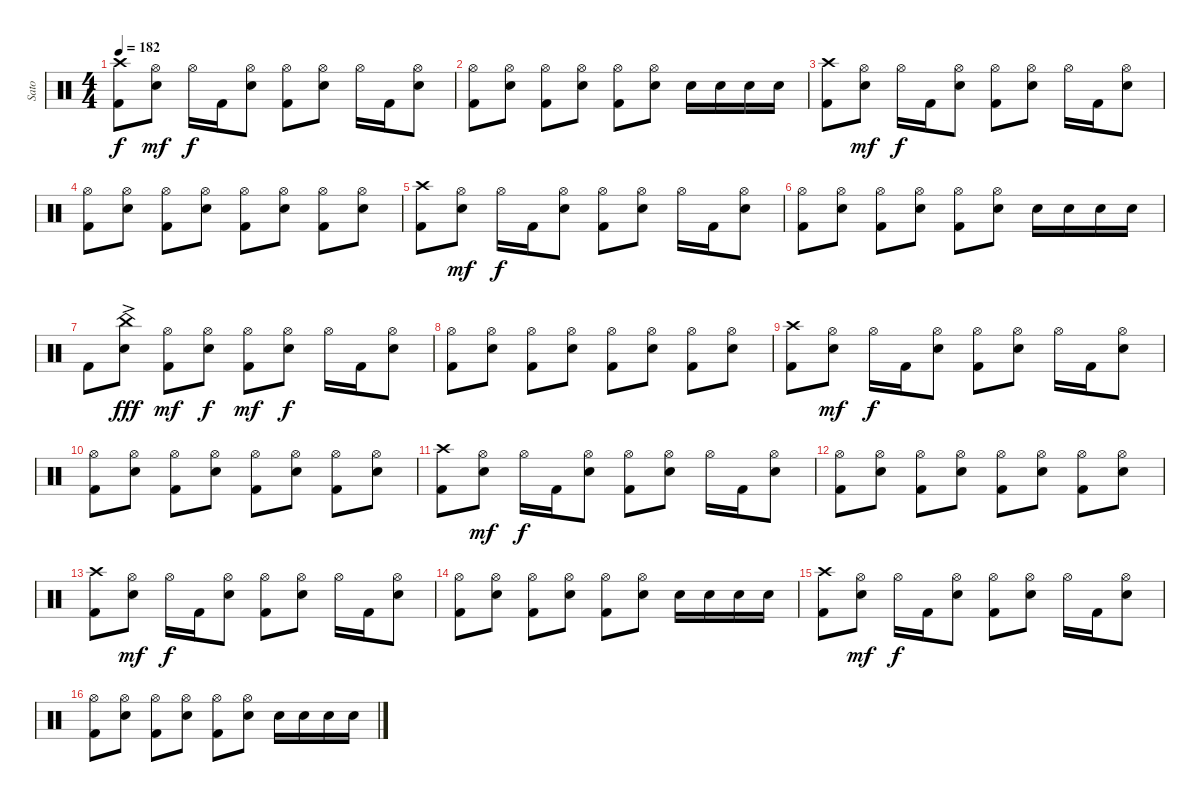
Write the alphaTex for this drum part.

\track ("Sato" "Sato") {instrument percussion}
\staff {score}
\articulation defaults
\ts (4 4)
\tempo 182
\clef neutral
\ks c
("Crash high (hit)" "Kick (hit) 2").8{dy f} ("Hi-Hat (open)" "Electric Snare (hit)").8{dy mf} "Hi-Hat (open)".16{dy f} "Kick (hit) 2".16 ("Hi-Hat (open)" "Electric Snare (hit)").8 ("Hi-Hat (open)" "Kick (hit) 2").8 ("Hi-Hat (open)" "Electric Snare (hit)").8 "Hi-Hat (open)".16 "Kick (hit) 2".16 ("Hi-Hat (open)" "Electric Snare (hit)").8 |
("Hi-Hat (open)" "Kick (hit) 2").8 ("Hi-Hat (open)" "Electric Snare (hit)").8 ("Hi-Hat (open)" "Kick (hit) 2").8 ("Hi-Hat (open)" "Electric Snare (hit)").8 ("Hi-Hat (open)" "Kick (hit) 2").8 ("Hi-Hat (open)" "Electric Snare (hit)").8 "Electric Snare (hit)".16 "Electric Snare (hit)".16 "Electric Snare (hit)".16 "Electric Snare (hit)".16 |
("Crash high (hit)" "Kick (hit) 2").8 ("Hi-Hat (open)" "Electric Snare (hit)").8{dy mf} "Hi-Hat (open)".16{dy f} "Kick (hit) 2".16 ("Hi-Hat (open)" "Electric Snare (hit)").8 ("Hi-Hat (open)" "Kick (hit) 2").8 ("Hi-Hat (open)" "Electric Snare (hit)").8 "Hi-Hat (open)".16 "Kick (hit) 2".16 ("Hi-Hat (open)" "Electric Snare (hit)").8 |
("Hi-Hat (open)" "Kick (hit) 2").8 ("Hi-Hat (open)" "Electric Snare (hit)").8 ("Hi-Hat (open)" "Kick (hit) 2").8 ("Hi-Hat (open)" "Electric Snare (hit)").8 ("Hi-Hat (open)" "Kick (hit) 2").8 ("Hi-Hat (open)" "Electric Snare (hit)").8 ("Hi-Hat (open)" "Kick (hit) 2").8 ("Hi-Hat (open)" "Electric Snare (hit)").8 |
("Crash high (hit)" "Kick (hit) 2").8 ("Hi-Hat (open)" "Electric Snare (hit)").8{dy mf} "Hi-Hat (open)".16{dy f} "Kick (hit) 2".16 ("Hi-Hat (open)" "Electric Snare (hit)").8 ("Hi-Hat (open)" "Kick (hit) 2").8 ("Hi-Hat (open)" "Electric Snare (hit)").8 "Hi-Hat (open)".16 "Kick (hit) 2".16 ("Hi-Hat (open)" "Electric Snare (hit)").8 |
("Hi-Hat (open)" "Kick (hit) 2").8 ("Hi-Hat (open)" "Electric Snare (hit)").8 ("Hi-Hat (open)" "Kick (hit) 2").8 ("Hi-Hat (open)" "Electric Snare (hit)").8 ("Hi-Hat (open)" "Kick (hit) 2").8 ("Hi-Hat (open)" "Electric Snare (hit)").8 "Electric Snare (hit)".16 "Electric Snare (hit)".16 "Electric Snare (hit)".16 "Electric Snare (hit)".16 |
"Kick (hit) 2".8 ("China (hit)" "Electric Snare (hit)"{ac}).8{dy fff} ("Hi-Hat (open)" "Kick (hit) 2").8{dy mf} ("Hi-Hat (open)" "Electric Snare (hit)").8{dy f} ("Hi-Hat (open)" "Kick (hit) 2").8{dy mf} ("Hi-Hat (open)" "Electric Snare (hit)").8{dy f} "Hi-Hat (open)".16 "Kick (hit) 2".16 ("Hi-Hat (open)" "Electric Snare (hit)").8 |
("Hi-Hat (open)" "Kick (hit) 2").8 ("Hi-Hat (open)" "Electric Snare (hit)").8 ("Hi-Hat (open)" "Kick (hit) 2").8 ("Hi-Hat (open)" "Electric Snare (hit)").8 ("Hi-Hat (open)" "Kick (hit) 2").8 ("Hi-Hat (open)" "Electric Snare (hit)").8 ("Hi-Hat (open)" "Kick (hit) 2").8 ("Hi-Hat (open)" "Electric Snare (hit)").8 |
("Crash high (hit)" "Kick (hit) 2").8 ("Hi-Hat (open)" "Electric Snare (hit)").8{dy mf} "Hi-Hat (open)".16{dy f} "Kick (hit) 2".16 ("Hi-Hat (open)" "Electric Snare (hit)").8 ("Hi-Hat (open)" "Kick (hit) 2").8 ("Hi-Hat (open)" "Electric Snare (hit)").8 "Hi-Hat (open)".16 "Kick (hit) 2".16 ("Hi-Hat (open)" "Electric Snare (hit)").8 |
("Hi-Hat (open)" "Kick (hit) 2").8 ("Hi-Hat (open)" "Electric Snare (hit)").8 ("Hi-Hat (open)" "Kick (hit) 2").8 ("Hi-Hat (open)" "Electric Snare (hit)").8 ("Hi-Hat (open)" "Kick (hit) 2").8 ("Hi-Hat (open)" "Electric Snare (hit)").8 ("Hi-Hat (open)" "Kick (hit) 2").8 ("Hi-Hat (open)" "Electric Snare (hit)").8 |
("Crash high (hit)" "Kick (hit) 2").8 ("Hi-Hat (open)" "Electric Snare (hit)").8{dy mf} "Hi-Hat (open)".16{dy f} "Kick (hit) 2".16 ("Hi-Hat (open)" "Electric Snare (hit)").8 ("Hi-Hat (open)" "Kick (hit) 2").8 ("Hi-Hat (open)" "Electric Snare (hit)").8 "Hi-Hat (open)".16 "Kick (hit) 2".16 ("Hi-Hat (open)" "Electric Snare (hit)").8 |
("Hi-Hat (open)" "Kick (hit) 2").8 ("Hi-Hat (open)" "Electric Snare (hit)").8 ("Hi-Hat (open)" "Kick (hit) 2").8 ("Hi-Hat (open)" "Electric Snare (hit)").8 ("Hi-Hat (open)" "Kick (hit) 2").8 ("Hi-Hat (open)" "Electric Snare (hit)").8 ("Hi-Hat (open)" "Kick (hit) 2").8 ("Hi-Hat (open)" "Electric Snare (hit)").8 |
("Crash high (hit)" "Kick (hit) 2").8 ("Hi-Hat (open)" "Electric Snare (hit)").8{dy mf} "Hi-Hat (open)".16{dy f} "Kick (hit) 2".16 ("Hi-Hat (open)" "Electric Snare (hit)").8 ("Hi-Hat (open)" "Kick (hit) 2").8 ("Hi-Hat (open)" "Electric Snare (hit)").8 "Hi-Hat (open)".16 "Kick (hit) 2".16 ("Hi-Hat (open)" "Electric Snare (hit)").8 |
("Hi-Hat (open)" "Kick (hit) 2").8 ("Hi-Hat (open)" "Electric Snare (hit)").8 ("Hi-Hat (open)" "Kick (hit) 2").8 ("Hi-Hat (open)" "Electric Snare (hit)").8 ("Hi-Hat (open)" "Kick (hit) 2").8 ("Hi-Hat (open)" "Electric Snare (hit)").8 "Electric Snare (hit)".16 "Electric Snare (hit)".16 "Electric Snare (hit)".16 "Electric Snare (hit)".16 |
("Crash high (hit)" "Kick (hit) 2").8 ("Hi-Hat (open)" "Electric Snare (hit)").8{dy mf} "Hi-Hat (open)".16{dy f} "Kick (hit) 2".16 ("Hi-Hat (open)" "Electric Snare (hit)").8 ("Hi-Hat (open)" "Kick (hit) 2").8 ("Hi-Hat (open)" "Electric Snare (hit)").8 "Hi-Hat (open)".16 "Kick (hit) 2".16 ("Hi-Hat (open)" "Electric Snare (hit)").8 |
("Hi-Hat (open)" "Kick (hit) 2").8 ("Hi-Hat (open)" "Electric Snare (hit)").8 ("Hi-Hat (open)" "Kick (hit) 2").8 ("Hi-Hat (open)" "Electric Snare (hit)").8 ("Hi-Hat (open)" "Kick (hit) 2").8 ("Hi-Hat (open)" "Electric Snare (hit)").8 "Electric Snare (hit)".16 "Electric Snare (hit)".16 "Electric Snare (hit)".16 "Electric Snare (hit)".16
